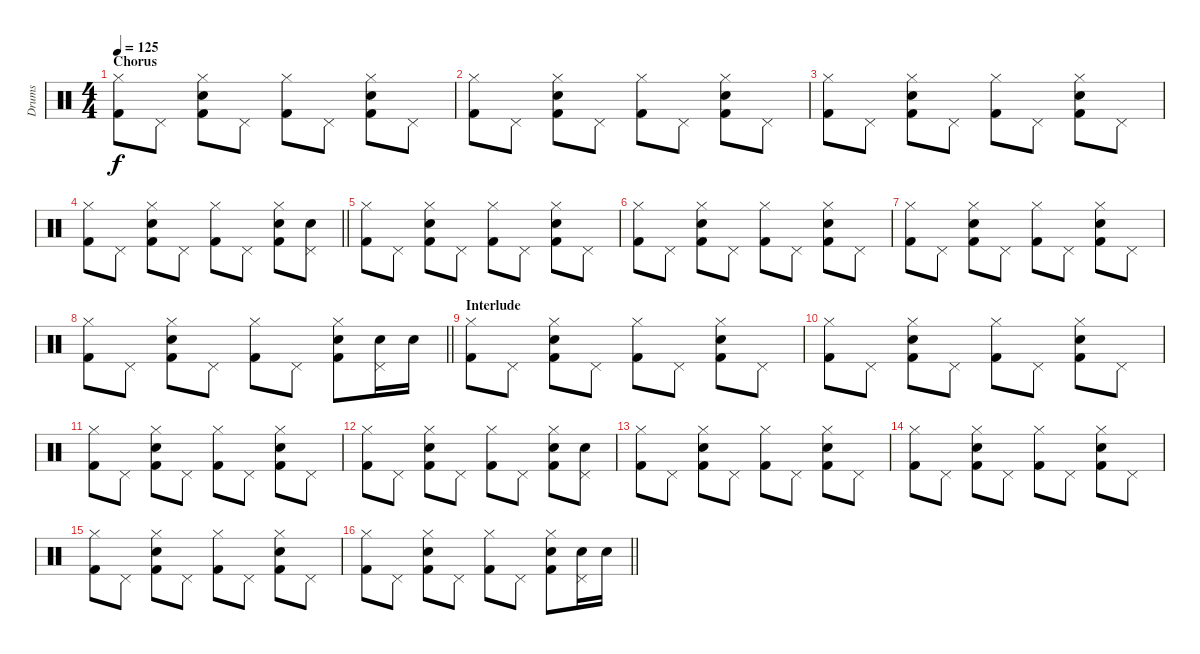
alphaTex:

\track ("Drums" "Drums") {instrument percussion}
\staff {score}
\articulation defaults
\ts (4 4)
\section ("" "Chorus")
\tempo 125
\clef neutral
\ks c
("Hi-Hat (closed)" "Kick (hit) 2").8{dy f} "Pedal Hi-Hat (hit)".8 ("Hi-Hat (closed)" "Snare (hit) 2" "Kick (hit) 2").8 "Pedal Hi-Hat (hit)".8 ("Hi-Hat (closed)" "Kick (hit) 2").8 "Pedal Hi-Hat (hit)".8 ("Hi-Hat (closed)" "Snare (hit) 2" "Kick (hit) 2").8 "Pedal Hi-Hat (hit)".8 |
("Hi-Hat (closed)" "Kick (hit) 2").8 "Pedal Hi-Hat (hit)".8 ("Hi-Hat (closed)" "Snare (hit) 2" "Kick (hit) 2").8 "Pedal Hi-Hat (hit)".8 ("Hi-Hat (closed)" "Kick (hit) 2").8 "Pedal Hi-Hat (hit)".8 ("Hi-Hat (closed)" "Snare (hit) 2" "Kick (hit) 2").8 "Pedal Hi-Hat (hit)".8 |
("Hi-Hat (closed)" "Kick (hit) 2").8 "Pedal Hi-Hat (hit)".8 ("Hi-Hat (closed)" "Snare (hit) 2" "Kick (hit) 2").8 "Pedal Hi-Hat (hit)".8 ("Hi-Hat (closed)" "Kick (hit) 2").8 "Pedal Hi-Hat (hit)".8 ("Hi-Hat (closed)" "Snare (hit) 2" "Kick (hit) 2").8 "Pedal Hi-Hat (hit)".8 |
\barLineRight lightlight
("Hi-Hat (closed)" "Kick (hit) 2").8 "Pedal Hi-Hat (hit)".8 ("Hi-Hat (closed)" "Snare (hit) 2" "Kick (hit) 2").8 "Pedal Hi-Hat (hit)".8 ("Hi-Hat (closed)" "Kick (hit) 2").8 "Pedal Hi-Hat (hit)".8 ("Hi-Hat (closed)" "Snare (hit) 2" "Kick (hit) 2").8 ("Pedal Hi-Hat (hit)" "Snare (hit) 2").8 |
("Hi-Hat (closed)" "Kick (hit) 2").8 "Pedal Hi-Hat (hit)".8 ("Hi-Hat (closed)" "Snare (hit) 2" "Kick (hit) 2").8 "Pedal Hi-Hat (hit)".8 ("Hi-Hat (closed)" "Kick (hit) 2").8 "Pedal Hi-Hat (hit)".8 ("Hi-Hat (closed)" "Snare (hit) 2" "Kick (hit) 2").8 "Pedal Hi-Hat (hit)".8 |
("Hi-Hat (closed)" "Kick (hit) 2").8 "Pedal Hi-Hat (hit)".8 ("Hi-Hat (closed)" "Snare (hit) 2" "Kick (hit) 2").8 "Pedal Hi-Hat (hit)".8 ("Hi-Hat (closed)" "Kick (hit) 2").8 "Pedal Hi-Hat (hit)".8 ("Hi-Hat (closed)" "Snare (hit) 2" "Kick (hit) 2").8 "Pedal Hi-Hat (hit)".8 |
("Hi-Hat (closed)" "Kick (hit) 2").8 "Pedal Hi-Hat (hit)".8 ("Hi-Hat (closed)" "Snare (hit) 2" "Kick (hit) 2").8 "Pedal Hi-Hat (hit)".8 ("Hi-Hat (closed)" "Kick (hit) 2").8 "Pedal Hi-Hat (hit)".8 ("Hi-Hat (closed)" "Snare (hit) 2" "Kick (hit) 2").8 "Pedal Hi-Hat (hit)".8 |
\barLineRight lightlight
("Hi-Hat (closed)" "Kick (hit) 2").8 "Pedal Hi-Hat (hit)".8 ("Hi-Hat (closed)" "Snare (hit) 2" "Kick (hit) 2").8 "Pedal Hi-Hat (hit)".8 ("Hi-Hat (closed)" "Kick (hit) 2").8 "Pedal Hi-Hat (hit)".8 ("Hi-Hat (closed)" "Snare (hit) 2" "Kick (hit) 2").8 ("Pedal Hi-Hat (hit)" "Snare (hit) 2").16 "Snare (hit) 2".16 |
\section ("" "Interlude")
("Hi-Hat (closed)" "Kick (hit) 2").8 "Pedal Hi-Hat (hit)".8 ("Hi-Hat (closed)" "Snare (hit) 2" "Kick (hit) 2").8 "Pedal Hi-Hat (hit)".8 ("Hi-Hat (closed)" "Kick (hit) 2").8 "Pedal Hi-Hat (hit)".8 ("Hi-Hat (closed)" "Snare (hit) 2" "Kick (hit) 2").8 "Pedal Hi-Hat (hit)".8 |
("Hi-Hat (closed)" "Kick (hit) 2").8 "Pedal Hi-Hat (hit)".8 ("Hi-Hat (closed)" "Snare (hit) 2" "Kick (hit) 2").8 "Pedal Hi-Hat (hit)".8 ("Hi-Hat (closed)" "Kick (hit) 2").8 "Pedal Hi-Hat (hit)".8 ("Hi-Hat (closed)" "Snare (hit) 2" "Kick (hit) 2").8 "Pedal Hi-Hat (hit)".8 |
("Hi-Hat (closed)" "Kick (hit) 2").8 "Pedal Hi-Hat (hit)".8 ("Hi-Hat (closed)" "Snare (hit) 2" "Kick (hit) 2").8 "Pedal Hi-Hat (hit)".8 ("Hi-Hat (closed)" "Kick (hit) 2").8 "Pedal Hi-Hat (hit)".8 ("Hi-Hat (closed)" "Snare (hit) 2" "Kick (hit) 2").8 "Pedal Hi-Hat (hit)".8 |
("Hi-Hat (closed)" "Kick (hit) 2").8 "Pedal Hi-Hat (hit)".8 ("Hi-Hat (closed)" "Snare (hit) 2" "Kick (hit) 2").8 "Pedal Hi-Hat (hit)".8 ("Hi-Hat (closed)" "Kick (hit) 2").8 "Pedal Hi-Hat (hit)".8 ("Hi-Hat (closed)" "Snare (hit) 2" "Kick (hit) 2").8 ("Pedal Hi-Hat (hit)" "Snare (hit) 2").8 |
("Hi-Hat (closed)" "Kick (hit) 2").8 "Pedal Hi-Hat (hit)".8 ("Hi-Hat (closed)" "Snare (hit) 2" "Kick (hit) 2").8 "Pedal Hi-Hat (hit)".8 ("Hi-Hat (closed)" "Kick (hit) 2").8 "Pedal Hi-Hat (hit)".8 ("Hi-Hat (closed)" "Snare (hit) 2" "Kick (hit) 2").8 "Pedal Hi-Hat (hit)".8 |
("Hi-Hat (closed)" "Kick (hit) 2").8 "Pedal Hi-Hat (hit)".8 ("Hi-Hat (closed)" "Snare (hit) 2" "Kick (hit) 2").8 "Pedal Hi-Hat (hit)".8 ("Hi-Hat (closed)" "Kick (hit) 2").8 "Pedal Hi-Hat (hit)".8 ("Hi-Hat (closed)" "Snare (hit) 2" "Kick (hit) 2").8 "Pedal Hi-Hat (hit)".8 |
("Hi-Hat (closed)" "Kick (hit) 2").8 "Pedal Hi-Hat (hit)".8 ("Hi-Hat (closed)" "Snare (hit) 2" "Kick (hit) 2").8 "Pedal Hi-Hat (hit)".8 ("Hi-Hat (closed)" "Kick (hit) 2").8 "Pedal Hi-Hat (hit)".8 ("Hi-Hat (closed)" "Snare (hit) 2" "Kick (hit) 2").8 "Pedal Hi-Hat (hit)".8 |
\barLineRight lightlight
("Hi-Hat (closed)" "Kick (hit) 2").8 "Pedal Hi-Hat (hit)".8 ("Hi-Hat (closed)" "Snare (hit) 2" "Kick (hit) 2").8 "Pedal Hi-Hat (hit)".8 ("Hi-Hat (closed)" "Kick (hit) 2").8 "Pedal Hi-Hat (hit)".8 ("Hi-Hat (closed)" "Snare (hit) 2" "Kick (hit) 2").8 ("Pedal Hi-Hat (hit)" "Snare (hit) 2").16 "Snare (hit) 2".16
